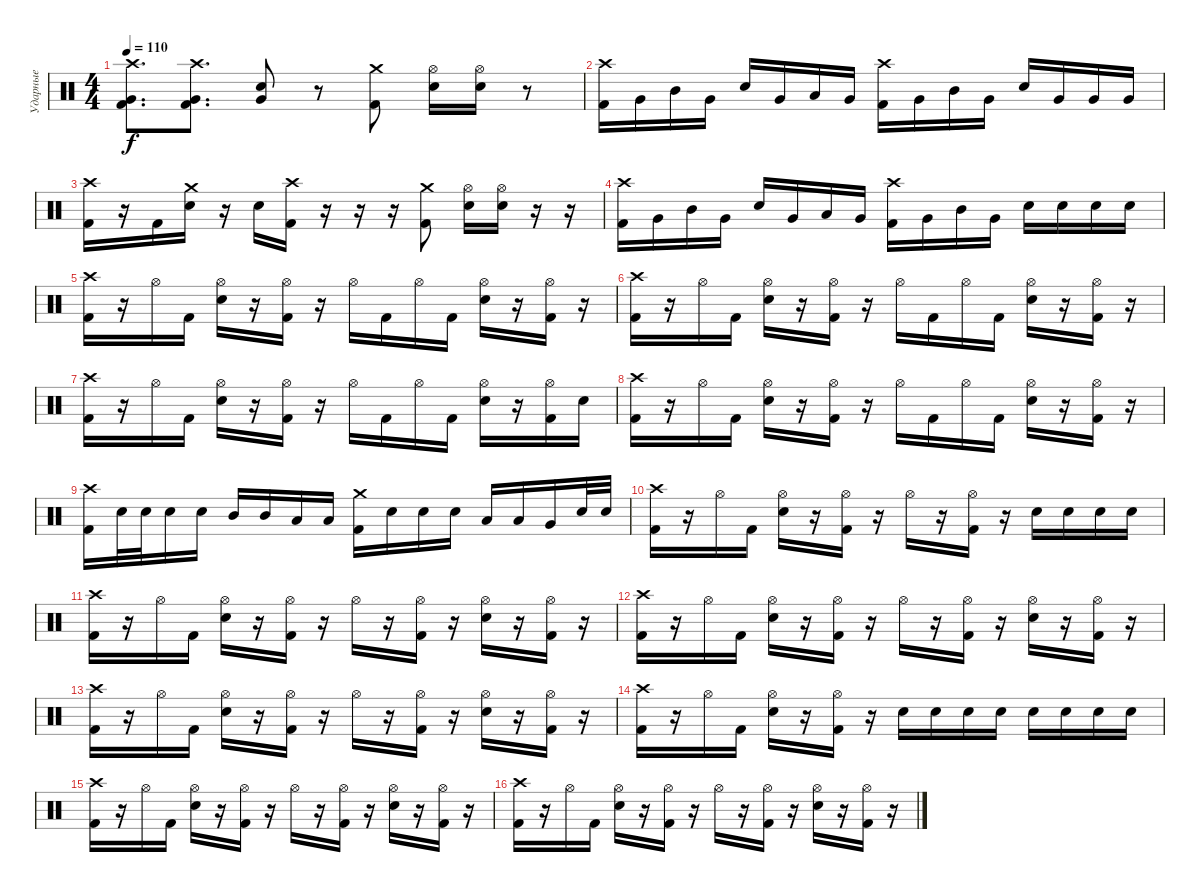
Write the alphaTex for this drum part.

\track ("Ударные" "Ударные") {instrument percussion}
\staff {score}
\articulation defaults
\ts (4 4)
\tempo 110
\clef neutral
\ks c
("Crash high (hit)" "Very Low Tom (hit)" "Kick (hit) 2").8{d dy f} ("Crash high (hit)" "Very Low Tom (hit)" "Kick (hit) 2").8{d} ("Snare (hit) 2" "Very Low Tom (hit)").8 r.8 ("Crash medium (hit)" "Kick (hit) 2").8 ("Hi-Hat (open)" "Snare (hit) 2").16 ("Hi-Hat (open)" "Snare (hit) 2").16 r.8 |
("Crash high (hit)" "Kick (hit) 2").16 "Very Low Tom (hit)".16 "Mid Tom (hit)".16 "Very Low Tom (hit)".16 "Snare (hit) 2".16 "Very Low Tom (hit)".16 "Low Tom (hit)".16 "Very Low Tom (hit)".16 ("Crash high (hit)" "Kick (hit) 2").16 "Very Low Tom (hit)".16 "Mid Tom (hit)".16 "Very Low Tom (hit)".16 "Snare (hit) 2".16 "Very Low Tom (hit)".16 "Very Low Tom (hit)".16 "Very Low Tom (hit)".16 |
("Crash high (hit)" "Kick (hit) 2").16 r.16 "Kick (hit) 2".16 ("Crash medium (hit)" "Snare (hit) 2").16 r.16 "Snare (hit) 2".16 ("Crash high (hit)" "Kick (hit) 2").16 r.16 r.16 r.16 ("Crash medium (hit)" "Kick (hit) 2").8 ("Hi-Hat (open)" "Snare (hit) 2").16 ("Hi-Hat (open)" "Snare (hit) 2").16 r.16 r.16 |
("Crash high (hit)" "Kick (hit) 2").16 "Very Low Tom (hit)".16 "Mid Tom (hit)".16 "Very Low Tom (hit)".16 "Snare (hit) 2".16 "Very Low Tom (hit)".16 "Low Tom (hit)".16 "Very Low Tom (hit)".16 ("Crash high (hit)" "Kick (hit) 2").16 "Very Low Tom (hit)".16 "Mid Tom (hit)".16 "Very Low Tom (hit)".16 "Snare (hit) 2".16 "Snare (hit) 2".16 "Snare (hit) 2".16 "Snare (hit) 2".16 |
("Crash high (hit)" "Kick (hit) 2").16 r.16 "Hi-Hat (open)".16 "Kick (hit) 2".16 ("Hi-Hat (open)" "Snare (hit) 2").16 r.16 ("Hi-Hat (open)" "Kick (hit) 2").16 r.16 "Hi-Hat (open)".16 "Kick (hit) 2".16 "Hi-Hat (open)".16 "Kick (hit) 2".16 ("Hi-Hat (open)" "Snare (hit) 2").16 r.16 ("Hi-Hat (open)" "Kick (hit) 2").16 r.16 |
("Crash high (hit)" "Kick (hit) 2").16 r.16 "Hi-Hat (open)".16 "Kick (hit) 2".16 ("Hi-Hat (open)" "Snare (hit) 2").16 r.16 ("Hi-Hat (open)" "Kick (hit) 2").16 r.16 "Hi-Hat (open)".16 "Kick (hit) 2".16 "Hi-Hat (open)".16 "Kick (hit) 2".16 ("Hi-Hat (open)" "Snare (hit) 2").16 r.16 ("Hi-Hat (open)" "Kick (hit) 2").16 r.16 |
("Crash high (hit)" "Kick (hit) 2").16 r.16 "Hi-Hat (open)".16 "Kick (hit) 2".16 ("Hi-Hat (open)" "Snare (hit) 2").16 r.16 ("Hi-Hat (open)" "Kick (hit) 2").16 r.16 "Hi-Hat (open)".16 "Kick (hit) 2".16 "Hi-Hat (open)".16 "Kick (hit) 2".16 ("Hi-Hat (open)" "Snare (hit) 2").16 r.16 ("Hi-Hat (open)" "Kick (hit) 2").16 "Snare (hit) 2".16 |
("Crash high (hit)" "Kick (hit) 2").16 r.16 "Hi-Hat (open)".16 "Kick (hit) 2".16 ("Hi-Hat (open)" "Snare (hit) 2").16 r.16 ("Hi-Hat (open)" "Kick (hit) 2").16 r.16 "Hi-Hat (open)".16 "Kick (hit) 2".16 "Hi-Hat (open)".16 "Kick (hit) 2".16 ("Hi-Hat (open)" "Snare (hit) 2").16 r.16 ("Hi-Hat (open)" "Kick (hit) 2").16 r.16 |
("Crash high (hit)" "Kick (hit) 2").16 "Snare (hit) 2".32 "Snare (hit) 2".32 "Snare (hit) 2".16 "Snare (hit) 2".16 "Mid Tom (hit)".16 "Mid Tom (hit)".16 "Low Tom (hit)".16 "Low Tom (hit)".16 ("Crash medium (hit)" "Kick (hit) 2").16 "Snare (hit) 2".16 "Snare (hit) 2".16 "Snare (hit) 2".16 "Low Tom (hit)".16 "Low Tom (hit)".16 "Very Low Tom (hit)".16 "Snare (hit) 2".32 "Snare (hit) 2".32 |
("Crash high (hit)" "Kick (hit) 2").16 r.16 "Hi-Hat (open)".16 "Kick (hit) 2".16 ("Hi-Hat (open)" "Snare (hit) 2").16 r.16 ("Hi-Hat (open)" "Kick (hit) 2").16 r.16 "Hi-Hat (open)".16 r.16 ("Hi-Hat (open)" "Kick (hit) 2").16 r.16 "Snare (hit) 2".16 "Snare (hit) 2".16 "Snare (hit) 2".16 "Snare (hit) 2".16 |
("Crash high (hit)" "Kick (hit) 2").16 r.16 "Hi-Hat (open)".16 "Kick (hit) 2".16 ("Hi-Hat (open)" "Snare (hit) 2").16 r.16 ("Hi-Hat (open)" "Kick (hit) 2").16 r.16 "Hi-Hat (open)".16 r.16 ("Hi-Hat (open)" "Kick (hit) 2").16 r.16 ("Hi-Hat (open)" "Snare (hit) 2").16 r.16 ("Hi-Hat (open)" "Kick (hit) 2").16 r.16 |
("Crash high (hit)" "Kick (hit) 2").16 r.16 "Hi-Hat (open)".16 "Kick (hit) 2".16 ("Hi-Hat (open)" "Snare (hit) 2").16 r.16 ("Hi-Hat (open)" "Kick (hit) 2").16 r.16 "Hi-Hat (open)".16 r.16 ("Hi-Hat (open)" "Kick (hit) 2").16 r.16 ("Hi-Hat (open)" "Snare (hit) 2").16 r.16 ("Hi-Hat (open)" "Kick (hit) 2").16 r.16 |
("Crash high (hit)" "Kick (hit) 2").16 r.16 "Hi-Hat (open)".16 "Kick (hit) 2".16 ("Hi-Hat (open)" "Snare (hit) 2").16 r.16 ("Hi-Hat (open)" "Kick (hit) 2").16 r.16 "Hi-Hat (open)".16 r.16 ("Hi-Hat (open)" "Kick (hit) 2").16 r.16 ("Hi-Hat (open)" "Snare (hit) 2").16 r.16 ("Hi-Hat (open)" "Kick (hit) 2").16 r.16 |
("Crash high (hit)" "Kick (hit) 2").16 r.16 "Hi-Hat (open)".16 "Kick (hit) 2".16 ("Hi-Hat (open)" "Snare (hit) 2").16 r.16 ("Hi-Hat (open)" "Kick (hit) 2").16 r.16 "Snare (hit) 2".16 "Snare (hit) 2".16 "Snare (hit) 2".16 "Snare (hit) 2".16 "Snare (hit) 2".16 "Snare (hit) 2".16 "Snare (hit) 2".16 "Snare (hit) 2".16 |
("Crash high (hit)" "Kick (hit) 2").16 r.16 "Hi-Hat (open)".16 "Kick (hit) 2".16 ("Hi-Hat (open)" "Snare (hit) 2").16 r.16 ("Hi-Hat (open)" "Kick (hit) 2").16 r.16 "Hi-Hat (open)".16 r.16 ("Hi-Hat (open)" "Kick (hit) 2").16 r.16 ("Hi-Hat (open)" "Snare (hit) 2").16 r.16 ("Hi-Hat (open)" "Kick (hit) 2").16 r.16 |
("Crash high (hit)" "Kick (hit) 2").16 r.16 "Hi-Hat (open)".16 "Kick (hit) 2".16 ("Hi-Hat (open)" "Snare (hit) 2").16 r.16 ("Hi-Hat (open)" "Kick (hit) 2").16 r.16 "Hi-Hat (open)".16 r.16 ("Hi-Hat (open)" "Kick (hit) 2").16 r.16 ("Hi-Hat (open)" "Snare (hit) 2").16 r.16 ("Hi-Hat (open)" "Kick (hit) 2").16 r.16
